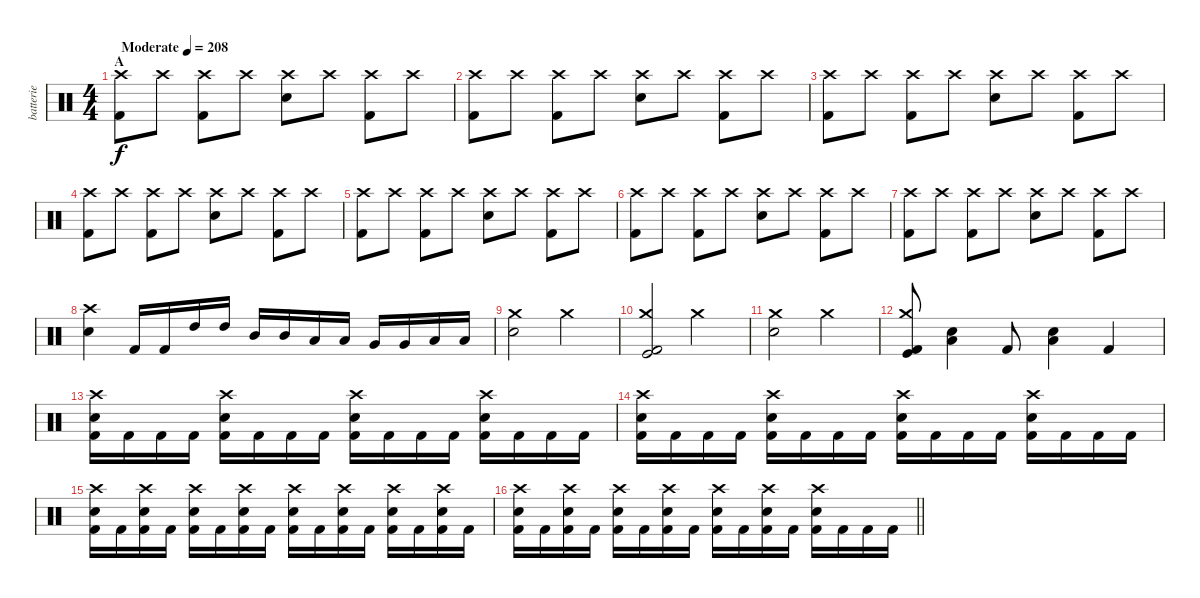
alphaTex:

\track ("batterie" "batterie") {instrument percussion}
\staff {score}
\articulation defaults
\ts (4 4)
\section ("" "A")
\tempo (208 "Moderate")
\clef neutral
\ks c
("Crash high (hit)" "Kick (hit) 2").8{dy f} "Crash high (hit)".8 ("Crash high (hit)" "Kick (hit) 2").8 "Crash high (hit)".8 ("Crash high (hit)" "Snare (hit) 2").8 "Crash high (hit)".8 ("Crash high (hit)" "Kick (hit) 2").8 "Crash high (hit)".8 |
("Crash high (hit)" "Kick (hit) 2").8 "Crash high (hit)".8 ("Crash high (hit)" "Kick (hit) 2").8 "Crash high (hit)".8 ("Crash high (hit)" "Snare (hit) 2").8 "Crash high (hit)".8 ("Crash high (hit)" "Kick (hit) 2").8 "Crash high (hit)".8 |
("Crash high (hit)" "Kick (hit) 2").8 "Crash high (hit)".8 ("Crash high (hit)" "Kick (hit) 2").8 "Crash high (hit)".8 ("Crash high (hit)" "Snare (hit) 2").8 "Crash high (hit)".8 ("Crash high (hit)" "Kick (hit) 2").8 "Crash high (hit)".8 |
("Crash high (hit)" "Kick (hit) 2").8 "Crash high (hit)".8 ("Crash high (hit)" "Kick (hit) 2").8 "Crash high (hit)".8 ("Crash high (hit)" "Snare (hit) 2").8 "Crash high (hit)".8 ("Crash high (hit)" "Kick (hit) 2").8 "Crash high (hit)".8 |
("Crash high (hit)" "Kick (hit) 2").8 "Crash high (hit)".8 ("Crash high (hit)" "Kick (hit) 2").8 "Crash high (hit)".8 ("Crash high (hit)" "Snare (hit) 2").8 "Crash high (hit)".8 ("Crash high (hit)" "Kick (hit) 2").8 "Crash high (hit)".8 |
("Crash high (hit)" "Kick (hit) 2").8 "Crash high (hit)".8 ("Crash high (hit)" "Kick (hit) 2").8 "Crash high (hit)".8 ("Crash high (hit)" "Snare (hit) 2").8 "Crash high (hit)".8 ("Crash high (hit)" "Kick (hit) 2").8 "Crash high (hit)".8 |
("Crash high (hit)" "Kick (hit) 2").8 "Crash high (hit)".8 ("Crash high (hit)" "Kick (hit) 2").8 "Crash high (hit)".8 ("Crash high (hit)" "Snare (hit) 2").8 "Crash high (hit)".8 ("Crash high (hit)" "Kick (hit) 2").8 "Crash high (hit)".8 |
("Crash high (hit)" "Snare (hit) 2").4 "Kick (hit) 2".16 "Kick (hit) 2".16 "High Tom (hit)".16 "High Tom (hit)".16 "Mid Tom (hit)".16 "Mid Tom (hit)".16 "Low Tom (hit)".16 "Low Tom (hit)".16 "Very Low Tom (hit)".16 "Very Low Tom (hit)".16 "Low Floor Tom (hit)".16 "Low Floor Tom (hit)".16 |
("Snare (hit) 2" "Crash medium (hit)").2 "Crash medium (hit)".2 |
("Crash medium (hit)" "Kick (hit)" "Kick (hit) 2").2 "Crash medium (hit)".2 |
("Snare (hit) 2" "Crash medium (hit)").2 "Crash medium (hit)".2 |
("Crash medium (hit)" "Kick (hit)" "Kick (hit) 2").8 ("Low Floor Tom (hit)" "Electric Snare (hit)").4 "Kick (hit) 2".8 ("Low Floor Tom (hit)" "Electric Snare (hit)").4 "Kick (hit) 2".4 |
("Snare (hit) 2" "Crash high (hit)" "Kick (hit) 2").16 "Kick (hit) 2".16 "Kick (hit) 2".16 "Kick (hit) 2".16 ("Snare (hit) 2" "Crash high (hit)" "Kick (hit) 2").16 "Kick (hit) 2".16 "Kick (hit) 2".16 "Kick (hit) 2".16 ("Snare (hit) 2" "Crash high (hit)" "Kick (hit) 2").16 "Kick (hit) 2".16 "Kick (hit) 2".16 "Kick (hit) 2".16 ("Snare (hit) 2" "Crash high (hit)" "Kick (hit) 2").16 "Kick (hit) 2".16 "Kick (hit) 2".16 "Kick (hit) 2".16 |
("Snare (hit) 2" "Crash high (hit)" "Kick (hit) 2").16 "Kick (hit) 2".16 "Kick (hit) 2".16 "Kick (hit) 2".16 ("Snare (hit) 2" "Crash high (hit)" "Kick (hit) 2").16 "Kick (hit) 2".16 "Kick (hit) 2".16 "Kick (hit) 2".16 ("Snare (hit) 2" "Crash high (hit)" "Kick (hit) 2").16 "Kick (hit) 2".16 "Kick (hit) 2".16 "Kick (hit) 2".16 ("Snare (hit) 2" "Crash high (hit)" "Kick (hit) 2").16 "Kick (hit) 2".16 "Kick (hit) 2".16 "Kick (hit) 2".16 |
("Snare (hit) 2" "Crash high (hit)" "Kick (hit) 2").16 "Kick (hit) 2".16 ("Snare (hit) 2" "Crash high (hit)" "Kick (hit) 2").16 "Kick (hit) 2".16 ("Snare (hit) 2" "Crash high (hit)" "Kick (hit) 2").16 "Kick (hit) 2".16 ("Snare (hit) 2" "Crash high (hit)" "Kick (hit) 2").16 "Kick (hit) 2".16 ("Snare (hit) 2" "Crash high (hit)" "Kick (hit) 2").16 "Kick (hit) 2".16 ("Snare (hit) 2" "Crash high (hit)" "Kick (hit) 2").16 "Kick (hit) 2".16 ("Snare (hit) 2" "Crash high (hit)" "Kick (hit) 2").16 "Kick (hit) 2".16 ("Snare (hit) 2" "Crash high (hit)" "Kick (hit) 2").16 "Kick (hit) 2".16 |
\barLineRight lightlight
("Snare (hit) 2" "Crash high (hit)" "Kick (hit) 2").16 "Kick (hit) 2".16 ("Snare (hit) 2" "Crash high (hit)" "Kick (hit) 2").16 "Kick (hit) 2".16 ("Snare (hit) 2" "Crash high (hit)" "Kick (hit) 2").16 "Kick (hit) 2".16 ("Snare (hit) 2" "Crash high (hit)" "Kick (hit) 2").16 "Kick (hit) 2".16 ("Snare (hit) 2" "Crash high (hit)" "Kick (hit) 2").16 "Kick (hit) 2".16 ("Snare (hit) 2" "Crash high (hit)" "Kick (hit) 2").16 "Kick (hit) 2".16 ("Snare (hit) 2" "Crash high (hit)" "Kick (hit) 2").16 "Kick (hit) 2".16 "Kick (hit) 2".16 "Kick (hit) 2".16
